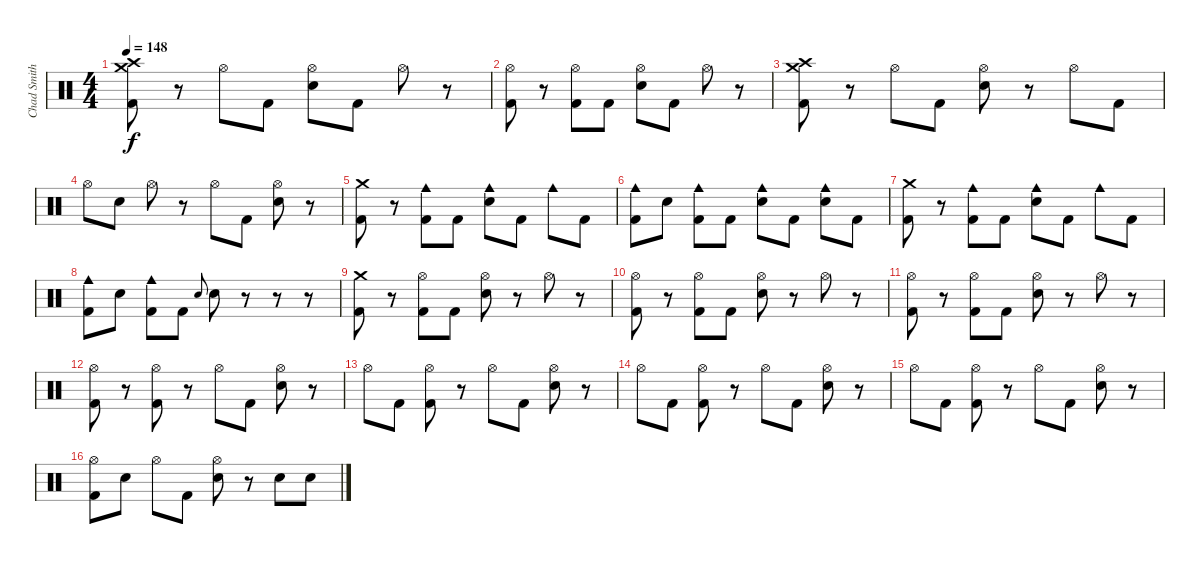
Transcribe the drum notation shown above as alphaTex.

\track ("Chad Smith" "Chad Smith") {instrument percussion}
\staff {score}
\articulation defaults
\ts (4 4)
\tempo 148
\clef neutral
\ks c
("Crash medium (hit)" "Crash high (hit)" "Kick (hit) 2").8{dy f} r.8 "Hi-Hat (open)".8 "Kick (hit) 2".8 ("Hi-Hat (open)" "Snare (hit) 2").8 "Kick (hit) 2".8 "Hi-Hat (open)".8 r.8 |
("Hi-Hat (open)" "Kick (hit) 2").8 r.8 ("Hi-Hat (open)" "Kick (hit) 2").8 "Kick (hit) 2".8 ("Hi-Hat (open)" "Snare (hit) 2").8 "Kick (hit) 2".8 "Hi-Hat (open)".8 r.8 |
("Crash medium (hit)" "Crash high (hit)" "Kick (hit) 2").8 r.8 "Hi-Hat (open)".8 "Kick (hit) 2".8 ("Hi-Hat (open)" "Snare (hit) 2").8 r.8 "Hi-Hat (open)".8 "Kick (hit) 2".8 |
"Hi-Hat (open)".8 "Snare (hit) 2".8 "Hi-Hat (open)".8 r.8 "Hi-Hat (open)".8 "Kick (hit) 2".8 ("Hi-Hat (open)" "Snare (hit) 2").8 r.8 |
("Crash medium (hit)" "Kick (hit) 2").8 r.8 ("Cowbell medium (hit)" "Kick (hit) 2").8 "Kick (hit) 2".8 ("Cowbell medium (hit)" "Snare (hit) 2").8 "Kick (hit) 2".8 "Cowbell medium (hit)".8 "Kick (hit) 2".8 |
("Cowbell medium (hit)" "Kick (hit) 2").8 "Snare (hit) 2".8 ("Cowbell medium (hit)" "Kick (hit) 2").8 "Kick (hit) 2".8 ("Cowbell medium (hit)" "Snare (hit) 2").8 "Kick (hit) 2".8 ("Cowbell medium (hit)" "Snare (hit) 2").8 "Kick (hit) 2".8 |
("Crash medium (hit)" "Kick (hit) 2").8 r.8 ("Cowbell medium (hit)" "Kick (hit) 2").8 "Kick (hit) 2".8 ("Cowbell medium (hit)" "Snare (hit) 2").8 "Kick (hit) 2".8 "Cowbell medium (hit)".8 "Kick (hit) 2".8 |
("Cowbell medium (hit)" "Kick (hit) 2").8 "Snare (hit) 2".8 ("Cowbell medium (hit)" "Kick (hit) 2").8 "Kick (hit) 2".8 "Snare (hit) 2".8{gr onbeat} "Snare (hit) 2".8 r.8 r.8 r.8 |
("Crash medium (hit)" "Kick (hit) 2").8 r.8 ("Hi-Hat (open)" "Kick (hit) 2").8 "Kick (hit) 2".8 ("Hi-Hat (open)" "Snare (hit) 2").8 r.8 "Hi-Hat (open)".8 r.8 |
("Hi-Hat (open)" "Kick (hit) 2").8 r.8 ("Hi-Hat (open)" "Kick (hit) 2").8 "Kick (hit) 2".8 ("Hi-Hat (open)" "Snare (hit) 2").8 r.8 "Hi-Hat (open)".8 r.8 |
("Hi-Hat (open)" "Kick (hit) 2").8 r.8 ("Hi-Hat (open)" "Kick (hit) 2").8 "Kick (hit) 2".8 ("Hi-Hat (open)" "Snare (hit) 2").8 r.8 "Hi-Hat (open)".8 r.8 |
("Hi-Hat (open)" "Kick (hit) 2").8 r.8 ("Hi-Hat (open)" "Kick (hit) 2").8 r.8 "Hi-Hat (open)".8 "Kick (hit) 2".8 ("Hi-Hat (open)" "Snare (hit) 2").8 r.8 |
"Hi-Hat (open)".8 "Kick (hit) 2".8 ("Hi-Hat (open)" "Kick (hit) 2").8 r.8 "Hi-Hat (open)".8 "Kick (hit) 2".8 ("Hi-Hat (open)" "Snare (hit) 2").8 r.8 |
"Hi-Hat (open)".8 "Kick (hit) 2".8 ("Hi-Hat (open)" "Kick (hit) 2").8 r.8 "Hi-Hat (open)".8 "Kick (hit) 2".8 ("Hi-Hat (open)" "Snare (hit) 2").8 r.8 |
"Hi-Hat (open)".8 "Kick (hit) 2".8 ("Hi-Hat (open)" "Kick (hit) 2").8 r.8 "Hi-Hat (open)".8 "Kick (hit) 2".8 ("Hi-Hat (open)" "Snare (hit) 2").8 r.8 |
("Hi-Hat (open)" "Kick (hit) 2").8 "Snare (hit) 2".8 "Hi-Hat (open)".8 "Kick (hit) 2".8 ("Hi-Hat (open)" "Snare (hit) 2").8 r.8 "Snare (hit) 2".8 "Snare (hit) 2".8
